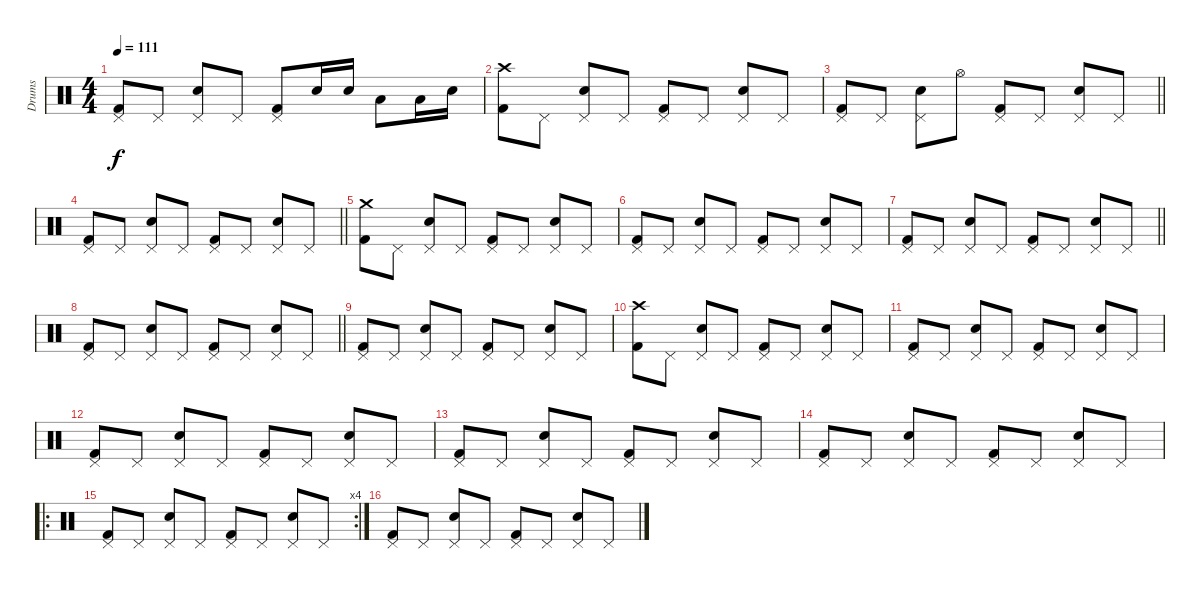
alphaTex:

\track ("Drums" "Drums") {instrument percussion}
\staff {score}
\articulation defaults
\ts (4 4)
\tempo 111
\clef neutral
\ks c
("Pedal Hi-Hat (hit)" "Kick (hit) 2").8{dy f} "Pedal Hi-Hat (hit)".8 ("Pedal Hi-Hat (hit)" "Snare (hit) 2").8 "Pedal Hi-Hat (hit)".8 ("Pedal Hi-Hat (hit)" "Kick (hit) 2").8 "Snare (hit) 2".16 "Snare (hit) 2".16 "Low Floor Tom (hit)".8 "Low Tom (hit)".16 "Snare (hit) 2".16 |
("Crash high (hit)" "Kick (hit) 2").8 "Pedal Hi-Hat (hit)".8 ("Pedal Hi-Hat (hit)" "Snare (hit) 2").8 "Pedal Hi-Hat (hit)".8 ("Pedal Hi-Hat (hit)" "Kick (hit) 2").8 "Pedal Hi-Hat (hit)".8 ("Pedal Hi-Hat (hit)" "Snare (hit) 2").8 "Pedal Hi-Hat (hit)".8 |
\barLineRight lightlight
("Pedal Hi-Hat (hit)" "Kick (hit) 2").8 "Pedal Hi-Hat (hit)".8 ("Pedal Hi-Hat (hit)" "Snare (hit) 2").8 "Hi-Hat (open)".8 ("Pedal Hi-Hat (hit)" "Kick (hit) 2").8 "Pedal Hi-Hat (hit)".8 ("Pedal Hi-Hat (hit)" "Snare (hit) 2").8 "Pedal Hi-Hat (hit)".8 |
\barLineRight lightlight
("Pedal Hi-Hat (hit)" "Kick (hit) 2").8 "Pedal Hi-Hat (hit)".8 ("Pedal Hi-Hat (hit)" "Snare (hit) 2").8 "Pedal Hi-Hat (hit)".8 ("Pedal Hi-Hat (hit)" "Kick (hit) 2").8 "Pedal Hi-Hat (hit)".8 ("Pedal Hi-Hat (hit)" "Snare (hit) 2").8 "Pedal Hi-Hat (hit)".8 |
("Crash medium (hit)" "Kick (hit) 2").8 "Pedal Hi-Hat (hit)".8 ("Pedal Hi-Hat (hit)" "Snare (hit) 2").8 "Pedal Hi-Hat (hit)".8 ("Pedal Hi-Hat (hit)" "Kick (hit) 2").8 "Pedal Hi-Hat (hit)".8 ("Pedal Hi-Hat (hit)" "Snare (hit) 2").8 "Pedal Hi-Hat (hit)".8 |
("Pedal Hi-Hat (hit)" "Kick (hit) 2").8 "Pedal Hi-Hat (hit)".8 ("Pedal Hi-Hat (hit)" "Snare (hit) 2").8 "Pedal Hi-Hat (hit)".8 ("Pedal Hi-Hat (hit)" "Kick (hit) 2").8 "Pedal Hi-Hat (hit)".8 ("Pedal Hi-Hat (hit)" "Snare (hit) 2").8 "Pedal Hi-Hat (hit)".8 |
\barLineRight lightlight
("Pedal Hi-Hat (hit)" "Kick (hit) 2").8 "Pedal Hi-Hat (hit)".8 ("Pedal Hi-Hat (hit)" "Snare (hit) 2").8 "Pedal Hi-Hat (hit)".8 ("Pedal Hi-Hat (hit)" "Kick (hit) 2").8 "Pedal Hi-Hat (hit)".8 ("Pedal Hi-Hat (hit)" "Snare (hit) 2").8 "Pedal Hi-Hat (hit)".8 |
\barLineRight lightlight
("Pedal Hi-Hat (hit)" "Kick (hit) 2").8 "Pedal Hi-Hat (hit)".8 ("Pedal Hi-Hat (hit)" "Snare (hit) 2").8 "Pedal Hi-Hat (hit)".8 ("Pedal Hi-Hat (hit)" "Kick (hit) 2").8 "Pedal Hi-Hat (hit)".8 ("Pedal Hi-Hat (hit)" "Snare (hit) 2").8 "Pedal Hi-Hat (hit)".8 |
("Pedal Hi-Hat (hit)" "Kick (hit) 2").8 "Pedal Hi-Hat (hit)".8 ("Pedal Hi-Hat (hit)" "Snare (hit) 2").8 "Pedal Hi-Hat (hit)".8 ("Pedal Hi-Hat (hit)" "Kick (hit) 2").8 "Pedal Hi-Hat (hit)".8 ("Pedal Hi-Hat (hit)" "Snare (hit) 2").8 "Pedal Hi-Hat (hit)".8 |
("Crash high (hit)" "Kick (hit) 2").8 "Pedal Hi-Hat (hit)".8 ("Pedal Hi-Hat (hit)" "Snare (hit) 2").8 "Pedal Hi-Hat (hit)".8 ("Pedal Hi-Hat (hit)" "Kick (hit) 2").8 "Pedal Hi-Hat (hit)".8 ("Pedal Hi-Hat (hit)" "Snare (hit) 2").8 "Pedal Hi-Hat (hit)".8 |
("Pedal Hi-Hat (hit)" "Kick (hit) 2").8 "Pedal Hi-Hat (hit)".8 ("Pedal Hi-Hat (hit)" "Snare (hit) 2").8 "Pedal Hi-Hat (hit)".8 ("Pedal Hi-Hat (hit)" "Kick (hit) 2").8 "Pedal Hi-Hat (hit)".8 ("Pedal Hi-Hat (hit)" "Snare (hit) 2").8 "Pedal Hi-Hat (hit)".8 |
("Pedal Hi-Hat (hit)" "Kick (hit) 2").8 "Pedal Hi-Hat (hit)".8 ("Pedal Hi-Hat (hit)" "Snare (hit) 2").8 "Pedal Hi-Hat (hit)".8 ("Pedal Hi-Hat (hit)" "Kick (hit) 2").8 "Pedal Hi-Hat (hit)".8 ("Pedal Hi-Hat (hit)" "Snare (hit) 2").8 "Pedal Hi-Hat (hit)".8 |
("Pedal Hi-Hat (hit)" "Kick (hit) 2").8 "Pedal Hi-Hat (hit)".8 ("Pedal Hi-Hat (hit)" "Snare (hit) 2").8 "Pedal Hi-Hat (hit)".8 ("Pedal Hi-Hat (hit)" "Kick (hit) 2").8 "Pedal Hi-Hat (hit)".8 ("Pedal Hi-Hat (hit)" "Snare (hit) 2").8 "Pedal Hi-Hat (hit)".8 |
("Pedal Hi-Hat (hit)" "Kick (hit) 2").8 "Pedal Hi-Hat (hit)".8 ("Pedal Hi-Hat (hit)" "Snare (hit) 2").8 "Pedal Hi-Hat (hit)".8 ("Pedal Hi-Hat (hit)" "Kick (hit) 2").8 "Pedal Hi-Hat (hit)".8 ("Pedal Hi-Hat (hit)" "Snare (hit) 2").8 "Pedal Hi-Hat (hit)".8 |
\ro
\rc 4
("Pedal Hi-Hat (hit)" "Kick (hit) 2").8 "Pedal Hi-Hat (hit)".8 ("Pedal Hi-Hat (hit)" "Snare (hit) 2").8 "Pedal Hi-Hat (hit)".8 ("Pedal Hi-Hat (hit)" "Kick (hit) 2").8 "Pedal Hi-Hat (hit)".8 ("Pedal Hi-Hat (hit)" "Snare (hit) 2").8 "Pedal Hi-Hat (hit)".8 |
("Pedal Hi-Hat (hit)" "Kick (hit) 2").8 "Pedal Hi-Hat (hit)".8 ("Pedal Hi-Hat (hit)" "Snare (hit) 2").8 "Pedal Hi-Hat (hit)".8 ("Pedal Hi-Hat (hit)" "Kick (hit) 2").8 "Pedal Hi-Hat (hit)".8 ("Pedal Hi-Hat (hit)" "Snare (hit) 2").8 "Pedal Hi-Hat (hit)".8
